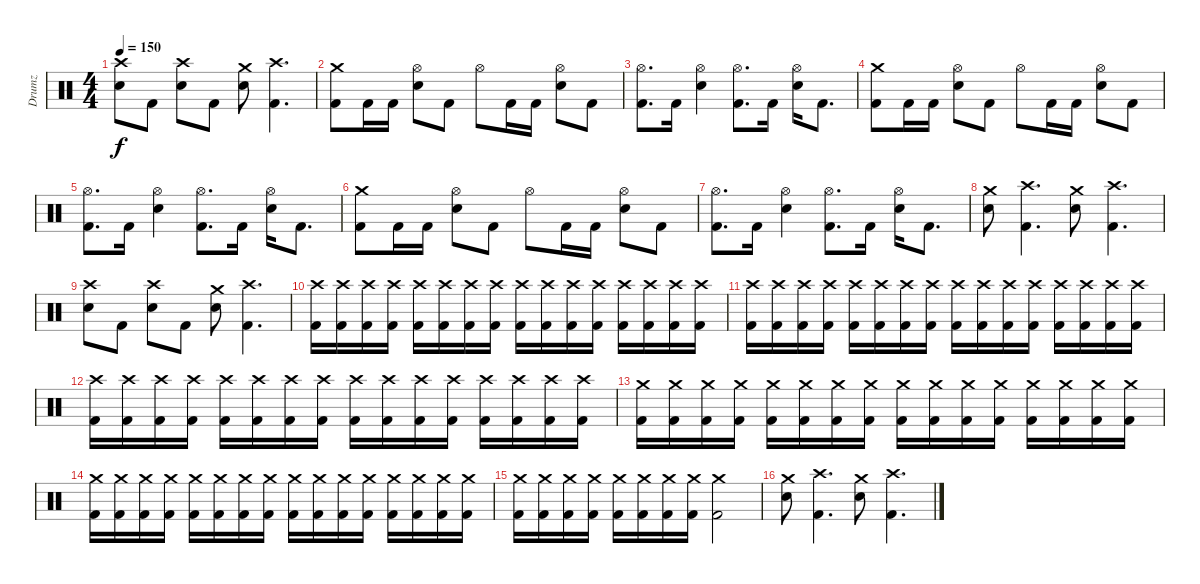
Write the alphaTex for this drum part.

\track ("Drumz" "Drumz") {instrument percussion}
\staff {score}
\articulation defaults
\ts (4 4)
\tempo 150
\clef neutral
\ks c
("Crash high (hit)" "Electric Snare (hit)").8{dy f} "Kick (hit) 2".8 ("Crash high (hit)" "Electric Snare (hit)").8 "Kick (hit) 2".8 ("Crash medium (hit)" "Electric Snare (hit)").8 ("Crash high (hit)" "Kick (hit) 2").4{d} |
("Crash medium (hit)" "Kick (hit) 2").8 "Kick (hit) 2".16 "Kick (hit) 2".16 ("Hi-Hat (open)" "Electric Snare (hit)").8 "Kick (hit) 2".8 "Hi-Hat (open)".8 "Kick (hit) 2".16 "Kick (hit) 2".16 ("Hi-Hat (open)" "Electric Snare (hit)").8 "Kick (hit) 2".8 |
("Hi-Hat (open)" "Kick (hit) 2").8{d} "Kick (hit) 2".16 ("Hi-Hat (open)" "Electric Snare (hit)").4 ("Hi-Hat (open)" "Kick (hit) 2").8{d} "Kick (hit) 2".16 ("Hi-Hat (open)" "Electric Snare (hit)").16 "Kick (hit) 2".8{d} |
("Crash medium (hit)" "Kick (hit) 2").8 "Kick (hit) 2".16 "Kick (hit) 2".16 ("Hi-Hat (open)" "Electric Snare (hit)").8 "Kick (hit) 2".8 "Hi-Hat (open)".8 "Kick (hit) 2".16 "Kick (hit) 2".16 ("Hi-Hat (open)" "Electric Snare (hit)").8 "Kick (hit) 2".8 |
("Hi-Hat (open)" "Kick (hit) 2").8{d} "Kick (hit) 2".16 ("Hi-Hat (open)" "Electric Snare (hit)").4 ("Hi-Hat (open)" "Kick (hit) 2").8{d} "Kick (hit) 2".16 ("Hi-Hat (open)" "Electric Snare (hit)").16 "Kick (hit) 2".8{d} |
("Crash medium (hit)" "Kick (hit) 2").8 "Kick (hit) 2".16 "Kick (hit) 2".16 ("Hi-Hat (open)" "Electric Snare (hit)").8 "Kick (hit) 2".8 "Hi-Hat (open)".8 "Kick (hit) 2".16 "Kick (hit) 2".16 ("Hi-Hat (open)" "Electric Snare (hit)").8 "Kick (hit) 2".8 |
("Hi-Hat (open)" "Kick (hit) 2").8{d} "Kick (hit) 2".16 ("Hi-Hat (open)" "Electric Snare (hit)").4 ("Hi-Hat (open)" "Kick (hit) 2").8{d} "Kick (hit) 2".16 ("Hi-Hat (open)" "Electric Snare (hit)").16 "Kick (hit) 2".8{d} |
("Crash medium (hit)" "Electric Snare (hit)").8 ("Crash high (hit)" "Kick (hit) 2").4{d} ("Crash medium (hit)" "Electric Snare (hit)").8 ("Crash high (hit)" "Kick (hit) 2").4{d} |
("Crash high (hit)" "Electric Snare (hit)").8 "Kick (hit) 2".8 ("Crash high (hit)" "Electric Snare (hit)").8 "Kick (hit) 2".8 ("Crash medium (hit)" "Electric Snare (hit)").8 ("Crash high (hit)" "Kick (hit) 2").4{d} |
("Crash high (hit)" "Kick (hit) 2").16 ("Crash high (hit)" "Kick (hit) 2").16 ("Crash high (hit)" "Kick (hit) 2").16 ("Crash high (hit)" "Kick (hit) 2").16 ("Crash high (hit)" "Kick (hit) 2").16 ("Crash high (hit)" "Kick (hit) 2").16 ("Crash high (hit)" "Kick (hit) 2").16 ("Crash high (hit)" "Kick (hit) 2").16 ("Crash high (hit)" "Kick (hit) 2").16 ("Crash high (hit)" "Kick (hit) 2").16 ("Crash high (hit)" "Kick (hit) 2").16 ("Crash high (hit)" "Kick (hit) 2").16 ("Crash high (hit)" "Kick (hit) 2").16 ("Crash high (hit)" "Kick (hit) 2").16 ("Crash high (hit)" "Kick (hit) 2").16 ("Crash high (hit)" "Kick (hit) 2").16 |
("Crash high (hit)" "Kick (hit) 2").16 ("Crash high (hit)" "Kick (hit) 2").16 ("Crash high (hit)" "Kick (hit) 2").16 ("Crash high (hit)" "Kick (hit) 2").16 ("Crash high (hit)" "Kick (hit) 2").16 ("Crash high (hit)" "Kick (hit) 2").16 ("Crash high (hit)" "Kick (hit) 2").16 ("Crash high (hit)" "Kick (hit) 2").16 ("Crash high (hit)" "Kick (hit) 2").16 ("Crash high (hit)" "Kick (hit) 2").16 ("Crash high (hit)" "Kick (hit) 2").16 ("Crash high (hit)" "Kick (hit) 2").16 ("Crash high (hit)" "Kick (hit) 2").16 ("Crash high (hit)" "Kick (hit) 2").16 ("Crash high (hit)" "Kick (hit) 2").16 ("Crash high (hit)" "Kick (hit) 2").16 |
("Crash high (hit)" "Kick (hit) 2").16 ("Crash high (hit)" "Kick (hit) 2").16 ("Crash high (hit)" "Kick (hit) 2").16 ("Crash high (hit)" "Kick (hit) 2").16 ("Crash high (hit)" "Kick (hit) 2").16 ("Crash high (hit)" "Kick (hit) 2").16 ("Crash high (hit)" "Kick (hit) 2").16 ("Crash high (hit)" "Kick (hit) 2").16 ("Crash high (hit)" "Kick (hit) 2").16 ("Crash high (hit)" "Kick (hit) 2").16 ("Crash high (hit)" "Kick (hit) 2").16 ("Crash high (hit)" "Kick (hit) 2").16 ("Crash high (hit)" "Kick (hit) 2").16 ("Crash high (hit)" "Kick (hit) 2").16 ("Crash high (hit)" "Kick (hit) 2").16 ("Crash high (hit)" "Kick (hit) 2").16 |
("Crash medium (hit)" "Kick (hit) 2").16 ("Crash medium (hit)" "Kick (hit) 2").16 ("Crash medium (hit)" "Kick (hit) 2").16 ("Crash medium (hit)" "Kick (hit) 2").16 ("Crash medium (hit)" "Kick (hit) 2").16 ("Crash medium (hit)" "Kick (hit) 2").16 ("Crash medium (hit)" "Kick (hit) 2").16 ("Crash medium (hit)" "Kick (hit) 2").16 ("Crash medium (hit)" "Kick (hit) 2").16 ("Crash medium (hit)" "Kick (hit) 2").16 ("Crash medium (hit)" "Kick (hit) 2").16 ("Crash medium (hit)" "Kick (hit) 2").16 ("Crash medium (hit)" "Kick (hit) 2").16 ("Crash medium (hit)" "Kick (hit) 2").16 ("Crash medium (hit)" "Kick (hit) 2").16 ("Crash medium (hit)" "Kick (hit) 2").16 |
("Crash medium (hit)" "Kick (hit) 2").16 ("Crash medium (hit)" "Kick (hit) 2").16 ("Crash medium (hit)" "Kick (hit) 2").16 ("Crash medium (hit)" "Kick (hit) 2").16 ("Crash medium (hit)" "Kick (hit) 2").16 ("Crash medium (hit)" "Kick (hit) 2").16 ("Crash medium (hit)" "Kick (hit) 2").16 ("Crash medium (hit)" "Kick (hit) 2").16 ("Crash medium (hit)" "Kick (hit) 2").16 ("Crash medium (hit)" "Kick (hit) 2").16 ("Crash medium (hit)" "Kick (hit) 2").16 ("Crash medium (hit)" "Kick (hit) 2").16 ("Crash medium (hit)" "Kick (hit) 2").16 ("Crash medium (hit)" "Kick (hit) 2").16 ("Crash medium (hit)" "Kick (hit) 2").16 ("Crash medium (hit)" "Kick (hit) 2").16 |
("Crash medium (hit)" "Kick (hit) 2").16 ("Crash medium (hit)" "Kick (hit) 2").16 ("Crash medium (hit)" "Kick (hit) 2").16 ("Crash medium (hit)" "Kick (hit) 2").16 ("Crash medium (hit)" "Kick (hit) 2").16 ("Crash medium (hit)" "Kick (hit) 2").16 ("Crash medium (hit)" "Kick (hit) 2").16 ("Crash medium (hit)" "Kick (hit) 2").16 ("Crash medium (hit)" "Kick (hit) 2").2 |
("Crash medium (hit)" "Electric Snare (hit)").8 ("Crash high (hit)" "Kick (hit) 2").4{d} ("Crash medium (hit)" "Electric Snare (hit)").8 ("Crash high (hit)" "Kick (hit) 2").4{d}
